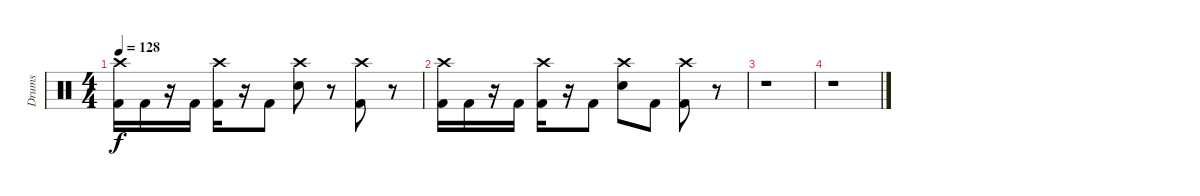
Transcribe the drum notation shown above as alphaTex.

\track ("Drums" "Drums") {instrument percussion}
\staff {score}
\articulation defaults
\ts (4 4)
\tempo 128
\clef neutral
\ks c
("Kick (hit) 2" "Crash high (hit)").16{dy f} "Kick (hit) 2".16 r.16 "Kick (hit) 2".16 ("Kick (hit) 2" "Crash high (hit)").16 r.16 "Kick (hit) 2".8 ("Electric Snare (hit)" "Crash high (hit)").8 r.8 ("Kick (hit) 2" "Crash high (hit)").8 r.8 |
("Kick (hit) 2" "Crash high (hit)").16 "Kick (hit) 2".16 r.16 "Kick (hit) 2".16 ("Kick (hit) 2" "Crash high (hit)").16 r.16 "Kick (hit) 2".8 ("Crash high (hit)" "Electric Snare (hit)").8 "Kick (hit) 2".8 ("Kick (hit) 2" "Crash high (hit)").8 r.8 |
r.1 |
r.1
